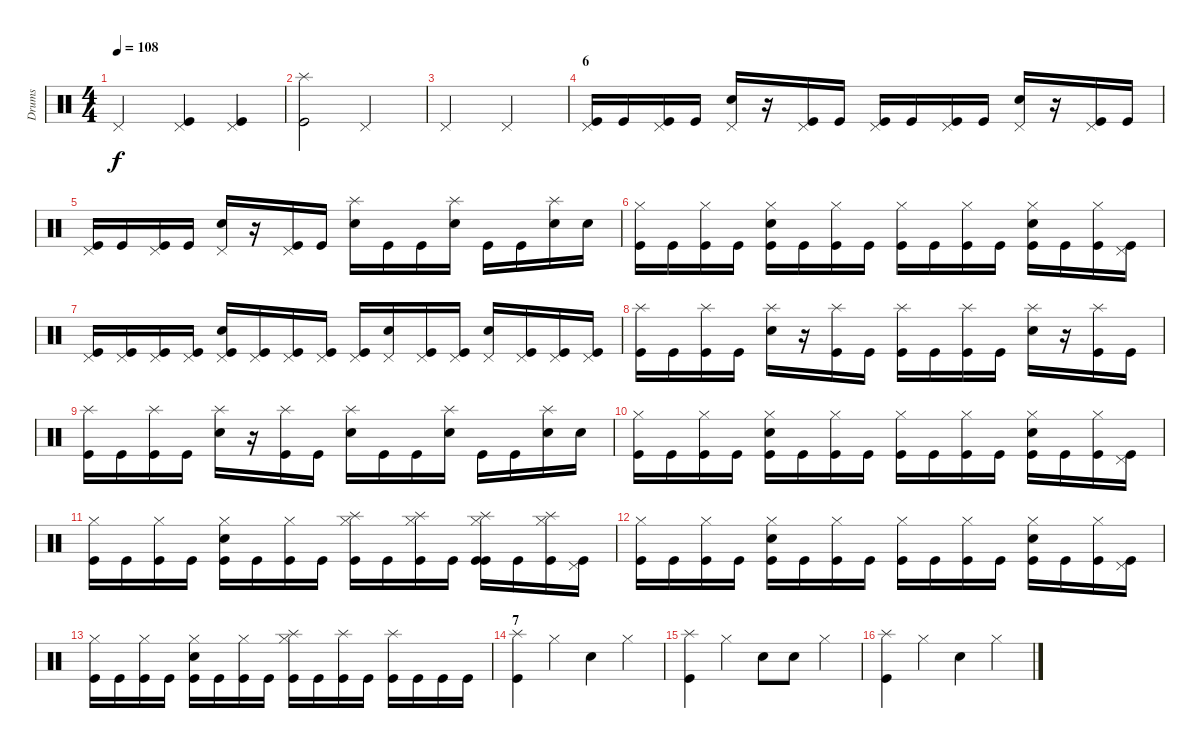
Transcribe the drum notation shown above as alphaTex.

\track ("Drums" "Drums") {instrument percussion}
\staff {score}
\articulation defaults
\ts (4 4)
\tempo 108
\clef neutral
\ks c "Pedal Hi-Hat (hit)".2{dy f}
("Kick (hit)" "Pedal Hi-Hat (hit)").4 ("Kick (hit)" "Pedal Hi-Hat (hit)").4 |
("Kick (hit)" "Splash (hit)").2 "Pedal Hi-Hat (hit)".2 |
"Pedal Hi-Hat (hit)".2 "Pedal Hi-Hat (hit)".2 |
\section ("" "6")
("Kick (hit)" "Pedal Hi-Hat (hit)").16 "Kick (hit)".16 ("Kick (hit)" "Pedal Hi-Hat (hit)").16 "Kick (hit)".16 ("Electric Snare (hit)" "Pedal Hi-Hat (hit)").16 r.16 ("Kick (hit)" "Pedal Hi-Hat (hit)").16 "Kick (hit)".16 ("Kick (hit)" "Pedal Hi-Hat (hit)").16 "Kick (hit)".16 ("Kick (hit)" "Pedal Hi-Hat (hit)").16 "Kick (hit)".16 ("Electric Snare (hit)" "Pedal Hi-Hat (hit)").16 r.16 ("Kick (hit)" "Pedal Hi-Hat (hit)").16 "Kick (hit)".16 |
("Kick (hit)" "Pedal Hi-Hat (hit)").16 "Kick (hit)".16 ("Kick (hit)" "Pedal Hi-Hat (hit)").16 "Kick (hit)".16 ("Electric Snare (hit)" "Pedal Hi-Hat (hit)").16 r.16 ("Kick (hit)" "Pedal Hi-Hat (hit)").16 "Kick (hit)".16 ("Electric Snare (hit)" "Splash (hit)").16 "Kick (hit)".16 "Kick (hit)".16 ("Electric Snare (hit)" "Splash (hit)").16 "Kick (hit)".16 "Kick (hit)".16 ("Electric Snare (hit)" "Splash (hit)").16 "Electric Snare (hit)".16 |
("Kick (hit)" "Hi-Hat (closed)").16 "Kick (hit)".16 ("Kick (hit)" "Hi-Hat (closed)").16 "Kick (hit)".16 ("Electric Snare (hit)" "Kick (hit)" "Hi-Hat (closed)").16 "Kick (hit)".16 ("Kick (hit)" "Hi-Hat (closed)").16 "Kick (hit)".16 ("Kick (hit)" "Hi-Hat (closed)").16 "Kick (hit)".16 ("Kick (hit)" "Hi-Hat (closed)").16 "Kick (hit)".16 ("Electric Snare (hit)" "Kick (hit)" "Hi-Hat (closed)").16 "Kick (hit)".16 ("Kick (hit)" "Hi-Hat (closed)").16 ("Kick (hit)" "Pedal Hi-Hat (hit)").16 |
("Kick (hit)" "Pedal Hi-Hat (hit)").16 ("Kick (hit)" "Pedal Hi-Hat (hit)").16 ("Kick (hit)" "Pedal Hi-Hat (hit)").16 ("Kick (hit)" "Pedal Hi-Hat (hit)").16 ("Electric Snare (hit)" "Kick (hit)" "Pedal Hi-Hat (hit)").16 ("Kick (hit)" "Pedal Hi-Hat (hit)").16 ("Kick (hit)" "Pedal Hi-Hat (hit)").16 ("Kick (hit)" "Pedal Hi-Hat (hit)").16 ("Kick (hit)" "Pedal Hi-Hat (hit)").16 ("Electric Snare (hit)" "Pedal Hi-Hat (hit)").16 ("Kick (hit)" "Pedal Hi-Hat (hit)").16 ("Kick (hit)" "Pedal Hi-Hat (hit)").16 ("Electric Snare (hit)" "Pedal Hi-Hat (hit)").16 ("Kick (hit)" "Pedal Hi-Hat (hit)").16 ("Kick (hit)" "Pedal Hi-Hat (hit)").16 ("Kick (hit)" "Pedal Hi-Hat (hit)").16 |
("Kick (hit)" "Splash (hit)").16 "Kick (hit)".16 ("Kick (hit)" "Splash (hit)").16 "Kick (hit)".16 ("Electric Snare (hit)" "Splash (hit)").16 r.16 ("Kick (hit)" "Splash (hit)").16 "Kick (hit)".16 ("Kick (hit)" "Splash (hit)").16 "Kick (hit)".16 ("Kick (hit)" "Splash (hit)").16 "Kick (hit)".16 ("Electric Snare (hit)" "Splash (hit)").16 r.16 ("Kick (hit)" "Splash (hit)").16 "Kick (hit)".16 |
("Kick (hit)" "Splash (hit)").16 "Kick (hit)".16 ("Kick (hit)" "Splash (hit)").16 "Kick (hit)".16 ("Electric Snare (hit)" "Splash (hit)").16 r.16 ("Kick (hit)" "Splash (hit)").16 "Kick (hit)".16 ("Electric Snare (hit)" "Splash (hit)").16 "Kick (hit)".16 "Kick (hit)".16 ("Electric Snare (hit)" "Splash (hit)").16 "Kick (hit)".16 "Kick (hit)".16 ("Electric Snare (hit)" "Splash (hit)").16 "Electric Snare (hit)".16 |
("Kick (hit)" "Hi-Hat (closed)").16 "Kick (hit)".16 ("Kick (hit)" "Hi-Hat (closed)").16 "Kick (hit)".16 ("Electric Snare (hit)" "Kick (hit)" "Hi-Hat (closed)").16 "Kick (hit)".16 ("Kick (hit)" "Hi-Hat (closed)").16 "Kick (hit)".16 ("Kick (hit)" "Hi-Hat (closed)").16 "Kick (hit)".16 ("Kick (hit)" "Hi-Hat (closed)").16 "Kick (hit)".16 ("Electric Snare (hit)" "Kick (hit)" "Hi-Hat (closed)").16 "Kick (hit)".16 ("Kick (hit)" "Hi-Hat (closed)").16 ("Kick (hit)" "Pedal Hi-Hat (hit)").16 |
("Kick (hit)" "Hi-Hat (closed)").16 "Kick (hit)".16 ("Kick (hit)" "Hi-Hat (closed)").16 "Kick (hit)".16 ("Electric Snare (hit)" "Kick (hit)" "Hi-Hat (closed)").16 "Kick (hit)".16 ("Kick (hit)" "Hi-Hat (closed)").16 "Kick (hit)".16 ("Kick (hit)" "Hi-Hat (closed)" "Splash (hit)").16 "Kick (hit)".16 ("Kick (hit)" "Hi-Hat (closed)" "Splash (hit)").16 "Kick (hit)".16 ("Kick (hit)" "Kick (hit)" "Hi-Hat (closed)" "Splash (hit)").16 "Kick (hit)".16 ("Kick (hit)" "Hi-Hat (closed)" "Splash (hit)").16 ("Kick (hit)" "Pedal Hi-Hat (hit)").16 |
("Kick (hit)" "Hi-Hat (closed)").16 "Kick (hit)".16 ("Kick (hit)" "Hi-Hat (closed)").16 "Kick (hit)".16 ("Electric Snare (hit)" "Kick (hit)" "Hi-Hat (closed)").16 "Kick (hit)".16 ("Kick (hit)" "Hi-Hat (closed)").16 "Kick (hit)".16 ("Kick (hit)" "Hi-Hat (closed)").16 "Kick (hit)".16 ("Kick (hit)" "Hi-Hat (closed)").16 "Kick (hit)".16 ("Electric Snare (hit)" "Kick (hit)" "Hi-Hat (closed)").16 "Kick (hit)".16 ("Kick (hit)" "Hi-Hat (closed)").16 ("Kick (hit)" "Pedal Hi-Hat (hit)").16 |
("Kick (hit)" "Hi-Hat (closed)").16 "Kick (hit)".16 ("Kick (hit)" "Hi-Hat (closed)").16 "Kick (hit)".16 ("Electric Snare (hit)" "Kick (hit)" "Hi-Hat (closed)").16 "Kick (hit)".16 ("Kick (hit)" "Hi-Hat (closed)").16 "Kick (hit)".16 ("Kick (hit)" "Hi-Hat (closed)" "Splash (hit)").16 "Kick (hit)".16 ("Kick (hit)" "Splash (hit)").16 "Kick (hit)".16 ("Kick (hit)" "Splash (hit)").16 "Kick (hit)".16 "Kick (hit)".16 "Kick (hit)".16 |
\section ("" "7")
("Kick (hit)" "Splash (hit)").4 "Hi-Hat (closed)".4 "Electric Snare (hit)".4 "Hi-Hat (closed)".4 |
("Kick (hit)" "Splash (hit)").4 "Hi-Hat (closed)".4 "Electric Snare (hit)".8 "Electric Snare (hit)".8 "Hi-Hat (closed)".4 |
("Kick (hit)" "Splash (hit)").4 "Hi-Hat (closed)".4 "Electric Snare (hit)".4 "Hi-Hat (closed)".4
